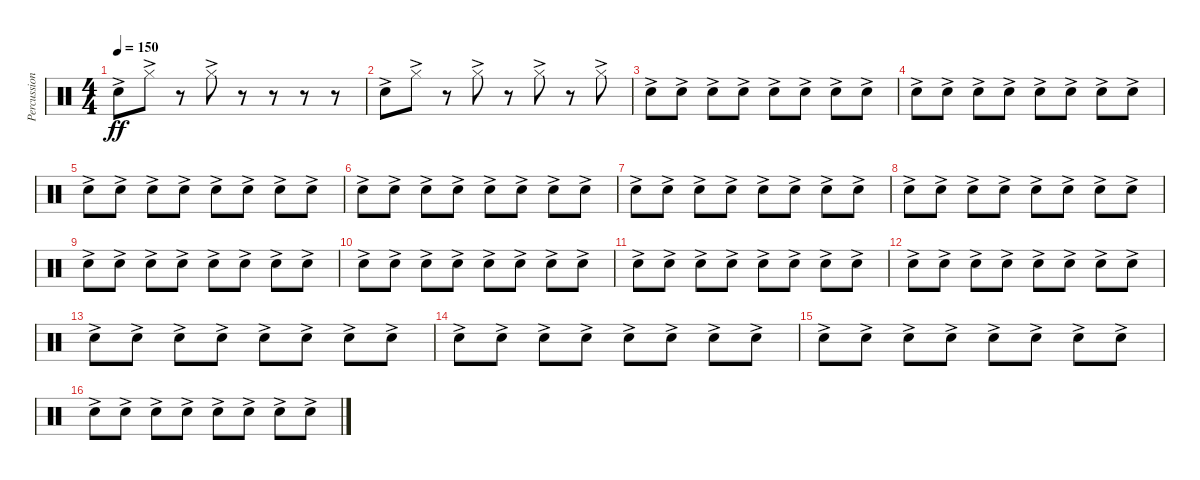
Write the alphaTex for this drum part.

\track ("Percussion" "Percussion") {instrument percussion bank 1}
\staff {score}
\articulation defaults
\ts (4 4)
\tempo 150
\clef neutral
\ks c "Snare (hit) 2"{ac}.8{dy ff} "Hi-Hat (closed)"{ac}.8
r.8 "Hi-Hat (closed)"{ac}.8 r.8 r.8 r.8 r.8 |
"Snare (hit) 2"{ac}.8 "Hi-Hat (closed)"{ac}.8 r.8 "Hi-Hat (closed)"{ac}.8 r.8 "Hi-Hat (closed)"{ac}.8 r.8 "Hi-Hat (closed)"{ac}.8 |
"Snare (hit) 2"{ac}.8 "Snare (hit) 2"{ac}.8 "Snare (hit) 2"{ac}.8 "Snare (hit) 2"{ac}.8 "Snare (hit) 2"{ac}.8 "Snare (hit) 2"{ac}.8 "Snare (hit) 2"{ac}.8 "Snare (hit) 2"{ac}.8 |
"Snare (hit) 2"{ac}.8 "Snare (hit) 2"{ac}.8 "Snare (hit) 2"{ac}.8 "Snare (hit) 2"{ac}.8 "Snare (hit) 2"{ac}.8 "Snare (hit) 2"{ac}.8 "Snare (hit) 2"{ac}.8 "Snare (hit) 2"{ac}.8 |
"Snare (hit) 2"{ac}.8 "Snare (hit) 2"{ac}.8 "Snare (hit) 2"{ac}.8 "Snare (hit) 2"{ac}.8 "Snare (hit) 2"{ac}.8 "Snare (hit) 2"{ac}.8 "Snare (hit) 2"{ac}.8 "Snare (hit) 2"{ac}.8 |
"Snare (hit) 2"{ac}.8 "Snare (hit) 2"{ac}.8 "Snare (hit) 2"{ac}.8 "Snare (hit) 2"{ac}.8 "Snare (hit) 2"{ac}.8 "Snare (hit) 2"{ac}.8 "Snare (hit) 2"{ac}.8 "Snare (hit) 2"{ac}.8 |
"Snare (hit) 2"{ac}.8 "Snare (hit) 2"{ac}.8 "Snare (hit) 2"{ac}.8 "Snare (hit) 2"{ac}.8 "Snare (hit) 2"{ac}.8 "Snare (hit) 2"{ac}.8 "Snare (hit) 2"{ac}.8 "Snare (hit) 2"{ac}.8 |
"Snare (hit) 2"{ac}.8 "Snare (hit) 2"{ac}.8 "Snare (hit) 2"{ac}.8 "Snare (hit) 2"{ac}.8 "Snare (hit) 2"{ac}.8 "Snare (hit) 2"{ac}.8 "Snare (hit) 2"{ac}.8 "Snare (hit) 2"{ac}.8 |
"Snare (hit) 2"{ac}.8 "Snare (hit) 2"{ac}.8 "Snare (hit) 2"{ac}.8 "Snare (hit) 2"{ac}.8 "Snare (hit) 2"{ac}.8 "Snare (hit) 2"{ac}.8 "Snare (hit) 2"{ac}.8 "Snare (hit) 2"{ac}.8 |
"Snare (hit) 2"{ac}.8 "Snare (hit) 2"{ac}.8 "Snare (hit) 2"{ac}.8 "Snare (hit) 2"{ac}.8 "Snare (hit) 2"{ac}.8 "Snare (hit) 2"{ac}.8 "Snare (hit) 2"{ac}.8 "Snare (hit) 2"{ac}.8 |
"Snare (hit) 2"{ac}.8 "Snare (hit) 2"{ac}.8 "Snare (hit) 2"{ac}.8 "Snare (hit) 2"{ac}.8 "Snare (hit) 2"{ac}.8 "Snare (hit) 2"{ac}.8 "Snare (hit) 2"{ac}.8 "Snare (hit) 2"{ac}.8 |
"Snare (hit) 2"{ac}.8 "Snare (hit) 2"{ac}.8 "Snare (hit) 2"{ac}.8 "Snare (hit) 2"{ac}.8 "Snare (hit) 2"{ac}.8 "Snare (hit) 2"{ac}.8 "Snare (hit) 2"{ac}.8 "Snare (hit) 2"{ac}.8 |
"Snare (hit) 2"{ac}.8 "Snare (hit) 2"{ac}.8 "Snare (hit) 2"{ac}.8 "Snare (hit) 2"{ac}.8 "Snare (hit) 2"{ac}.8 "Snare (hit) 2"{ac}.8 "Snare (hit) 2"{ac}.8 "Snare (hit) 2"{ac}.8 |
"Snare (hit) 2"{ac}.8 "Snare (hit) 2"{ac}.8 "Snare (hit) 2"{ac}.8 "Snare (hit) 2"{ac}.8 "Snare (hit) 2"{ac}.8 "Snare (hit) 2"{ac}.8 "Snare (hit) 2"{ac}.8 "Snare (hit) 2"{ac}.8 |
"Snare (hit) 2"{ac}.8 "Snare (hit) 2"{ac}.8 "Snare (hit) 2"{ac}.8 "Snare (hit) 2"{ac}.8 "Snare (hit) 2"{ac}.8 "Snare (hit) 2"{ac}.8 "Snare (hit) 2"{ac}.8 "Snare (hit) 2"{ac}.8 |
"Snare (hit) 2"{ac}.8 "Snare (hit) 2"{ac}.8 "Snare (hit) 2"{ac}.8 "Snare (hit) 2"{ac}.8 "Snare (hit) 2"{ac}.8 "Snare (hit) 2"{ac}.8 "Snare (hit) 2"{ac}.8 "Snare (hit) 2"{ac}.8
